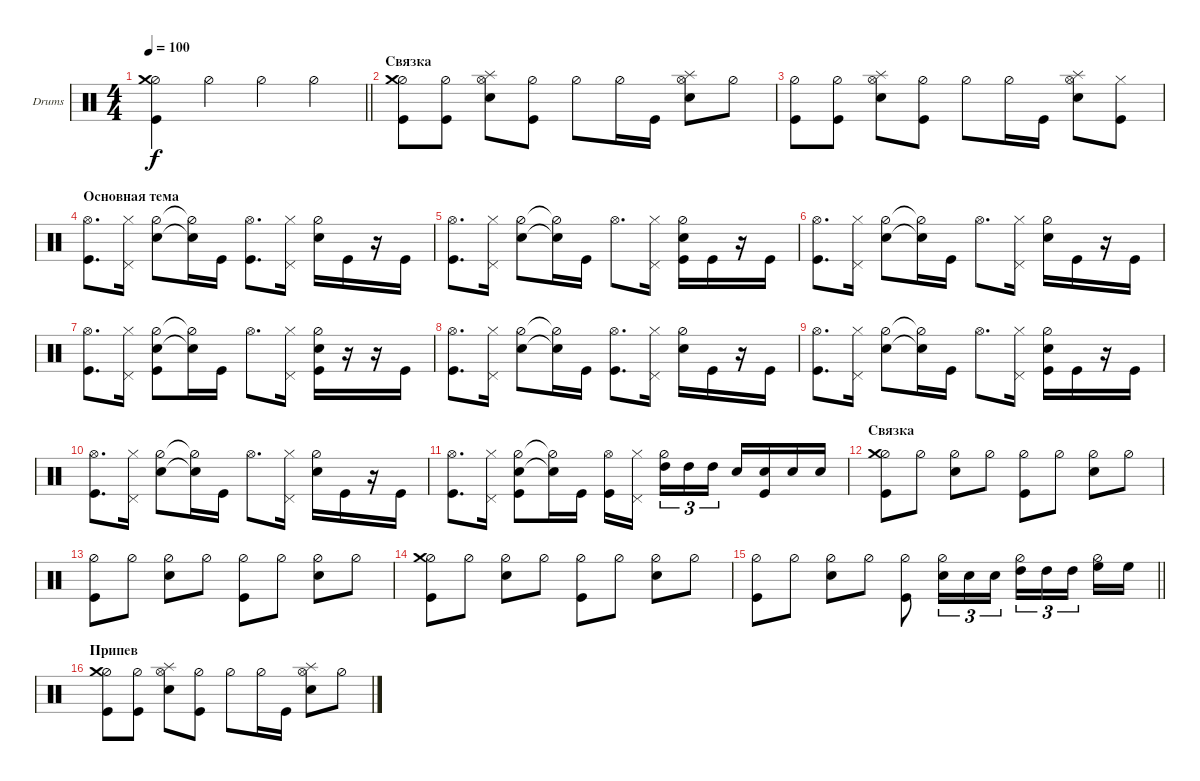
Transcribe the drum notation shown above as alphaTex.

\bracketExtendMode groupsimilarinstruments
\firstSystemTrackNameOrientation horizontal
\otherSystemsTrackNameOrientation horizontal
\track ("Drumkit" "Drums") {instrument percussion}
\staff {score}
\articulation defaults
\ts (4 4)
\tempo 100
\clef neutral
\barLineRight lightlight
\ks c
("Hi-Hat (half)" "Kick (hit)" "Crash medium (hit)").4{dy f} "Hi-Hat (half)".4 "Hi-Hat (half)".4 "Hi-Hat (half)".4 |
\section ("" "Связка")
("Hi-Hat (half)" "Kick (hit)" "Crash medium (hit)").8 ("Kick (hit)" "Hi-Hat (half)").8 ("Hi-Hat (open)" "Snare (hit) 2" "Splash (hit)").8 ("Kick (hit)" "Hi-Hat (half)").8 "Hi-Hat (half)".8 "Hi-Hat (half)".16 "Kick (hit)".16 ("Hi-Hat (open)" "Snare (hit) 2" "Splash (hit)").8 "Hi-Hat (half)".8 |
("Hi-Hat (half)" "Kick (hit)").8 ("Kick (hit)" "Hi-Hat (half)").8 ("Hi-Hat (open)" "Snare (hit) 2" "Splash (hit)").8 ("Kick (hit)" "Hi-Hat (half)").8 "Hi-Hat (half)".8 "Hi-Hat (half)".16 "Kick (hit)".16 ("Hi-Hat (open)" "Snare (hit) 2" "Splash (hit)").8 ("Kick (hit)" "Hi-Hat (closed)").8 |
\section ("" "Основная тема")
("Hi-Hat (open)" "Kick (hit)").8{d} ("Hi-Hat (closed)" "Pedal Hi-Hat (hit)").16 ("Hi-Hat (half)" "Snare (hit) 2").8 ("Hi-Hat (half)"{t} "Snare (hit) 2"{t}).16 "Kick (hit)".16 ("Hi-Hat (open)" "Kick (hit)").8{d} ("Hi-Hat (closed)" "Pedal Hi-Hat (hit)").16 ("Hi-Hat (half)" "Snare (hit) 2").16 "Kick (hit)".16 r.16 "Kick (hit)".16 |
("Hi-Hat (open)" "Kick (hit)").8{d} ("Hi-Hat (closed)" "Pedal Hi-Hat (hit)").16 ("Hi-Hat (half)" "Snare (hit) 2").8 ("Hi-Hat (half)"{t} "Snare (hit) 2"{t}).16 "Kick (hit)".16 "Hi-Hat (open)".8{d} ("Hi-Hat (closed)" "Pedal Hi-Hat (hit)").16 ("Hi-Hat (half)" "Snare (hit) 2" "Kick (hit)").16 "Kick (hit)".16 r.16 "Kick (hit)".16 |
("Hi-Hat (open)" "Kick (hit)").8{d} ("Hi-Hat (closed)" "Pedal Hi-Hat (hit)").16 ("Hi-Hat (half)" "Snare (hit) 2").8 ("Hi-Hat (half)"{t} "Snare (hit) 2"{t}).16 "Kick (hit)".16 "Hi-Hat (open)".8{d} ("Hi-Hat (closed)" "Pedal Hi-Hat (hit)").16 ("Hi-Hat (half)" "Snare (hit) 2").16 "Kick (hit)".16 r.16 "Kick (hit)".16 |
("Hi-Hat (open)" "Kick (hit)").8{d} ("Hi-Hat (closed)" "Pedal Hi-Hat (hit)").16 ("Hi-Hat (half)" "Snare (hit) 2" "Kick (hit)").8 ("Hi-Hat (half)"{t} "Snare (hit) 2"{t}).16 "Kick (hit)".16 "Hi-Hat (open)".8{d} ("Hi-Hat (closed)" "Pedal Hi-Hat (hit)").16 ("Hi-Hat (half)" "Snare (hit) 2" "Kick (hit)").16 r.16 r.16 "Kick (hit)".16 |
("Hi-Hat (open)" "Kick (hit)").8{d} ("Hi-Hat (closed)" "Pedal Hi-Hat (hit)").16 ("Hi-Hat (half)" "Snare (hit) 2").8 ("Hi-Hat (half)"{t} "Snare (hit) 2"{t}).16 "Kick (hit)".16 ("Hi-Hat (open)" "Kick (hit)").8{d} ("Hi-Hat (closed)" "Pedal Hi-Hat (hit)").16 ("Hi-Hat (half)" "Snare (hit) 2").16 "Kick (hit)".16 r.16 "Kick (hit)".16 |
("Hi-Hat (open)" "Kick (hit)").8{d} ("Hi-Hat (closed)" "Pedal Hi-Hat (hit)").16 ("Hi-Hat (half)" "Snare (hit) 2").8 ("Hi-Hat (half)"{t} "Snare (hit) 2"{t}).16 "Kick (hit)".16 "Hi-Hat (open)".8{d} ("Hi-Hat (closed)" "Pedal Hi-Hat (hit)").16 ("Hi-Hat (half)" "Snare (hit) 2" "Kick (hit)").16 "Kick (hit)".16 r.16 "Kick (hit)".16 |
("Hi-Hat (open)" "Kick (hit)").8{d} ("Hi-Hat (closed)" "Pedal Hi-Hat (hit)").16 ("Hi-Hat (half)" "Snare (hit) 2").8 ("Hi-Hat (half)"{t} "Snare (hit) 2"{t}).16 "Kick (hit)".16 "Hi-Hat (open)".8{d} ("Hi-Hat (closed)" "Pedal Hi-Hat (hit)").16 ("Hi-Hat (half)" "Snare (hit) 2").16 "Kick (hit)".16 r.16 "Kick (hit)".16 |
("Hi-Hat (open)" "Kick (hit)").8{d} ("Hi-Hat (closed)" "Pedal Hi-Hat (hit)").16 ("Hi-Hat (half)" "Snare (hit) 2" "Kick (hit)").8 ("Hi-Hat (half)"{t} "Snare (hit) 2"{t}).16 "Kick (hit)".16 ("Hi-Hat (open)" "Kick (hit)").16 ("Hi-Hat (closed)" "Pedal Hi-Hat (hit)").16 ("Hi-Hat (half)" "High Tom (hit)").16{tu (3 2)} "High Tom (hit)".16{tu (3 2)} "High Tom (hit)".16{tu (3 2)} "Snare (hit) 2".16 ("Kick (hit)" "Snare (hit) 2").16 "Snare (hit) 2".16 "Snare (hit) 2".16 |
\section ("" "Связка")
("Hi-Hat (half)" "Kick (hit)" "Crash medium (hit)").8 "Hi-Hat (half)".8 ("Hi-Hat (half)" "Snare (hit) 2").8 "Hi-Hat (half)".8 ("Hi-Hat (half)" "Kick (hit)").8 "Hi-Hat (half)".8 ("Hi-Hat (half)" "Snare (hit) 2").8 "Hi-Hat (half)".8 |
("Hi-Hat (half)" "Kick (hit)").8 "Hi-Hat (half)".8 ("Hi-Hat (half)" "Snare (hit) 2").8 "Hi-Hat (half)".8 ("Hi-Hat (half)" "Kick (hit)").8 "Hi-Hat (half)".8 ("Hi-Hat (half)" "Snare (hit) 2").8 "Hi-Hat (half)".8 |
("Hi-Hat (half)" "Kick (hit)" "Crash medium (hit)").8 "Hi-Hat (half)".8 ("Hi-Hat (half)" "Snare (hit) 2").8 "Hi-Hat (half)".8 ("Hi-Hat (half)" "Kick (hit)").8 "Hi-Hat (half)".8 ("Hi-Hat (half)" "Snare (hit) 2").8 "Hi-Hat (half)".8 |
\barLineRight lightlight
("Hi-Hat (half)" "Kick (hit)").8 "Hi-Hat (half)".8 ("Hi-Hat (half)" "Snare (hit) 2").8 "Hi-Hat (half)".8 ("Hi-Hat (half)" "Kick (hit)").8 ("Hi-Hat (half)" "Snare (hit) 2").16{tu (3 2)} "Snare (hit) 2".16{tu (3 2)} "Snare (hit) 2".16{tu (3 2)} ("Hi-Hat (half)" "High Tom (hit)").16{tu (3 2)} "High Tom (hit)".16{tu (3 2)} "High Tom (hit)".16{tu (3 2)} ("Hi-Hat (half)" "High Floor Tom (hit)").16 "High Floor Tom (hit)".16 |
\section ("" "Припев")
("Hi-Hat (half)" "Kick (hit)" "Crash medium (hit)").8 ("Kick (hit)" "Hi-Hat (half)").8 ("Hi-Hat (open)" "Snare (hit) 2" "Splash (hit)").8 ("Kick (hit)" "Hi-Hat (half)").8 "Hi-Hat (half)".8 "Hi-Hat (half)".16 "Kick (hit)".16 ("Hi-Hat (open)" "Snare (hit) 2" "Splash (hit)").8 "Hi-Hat (half)".8
